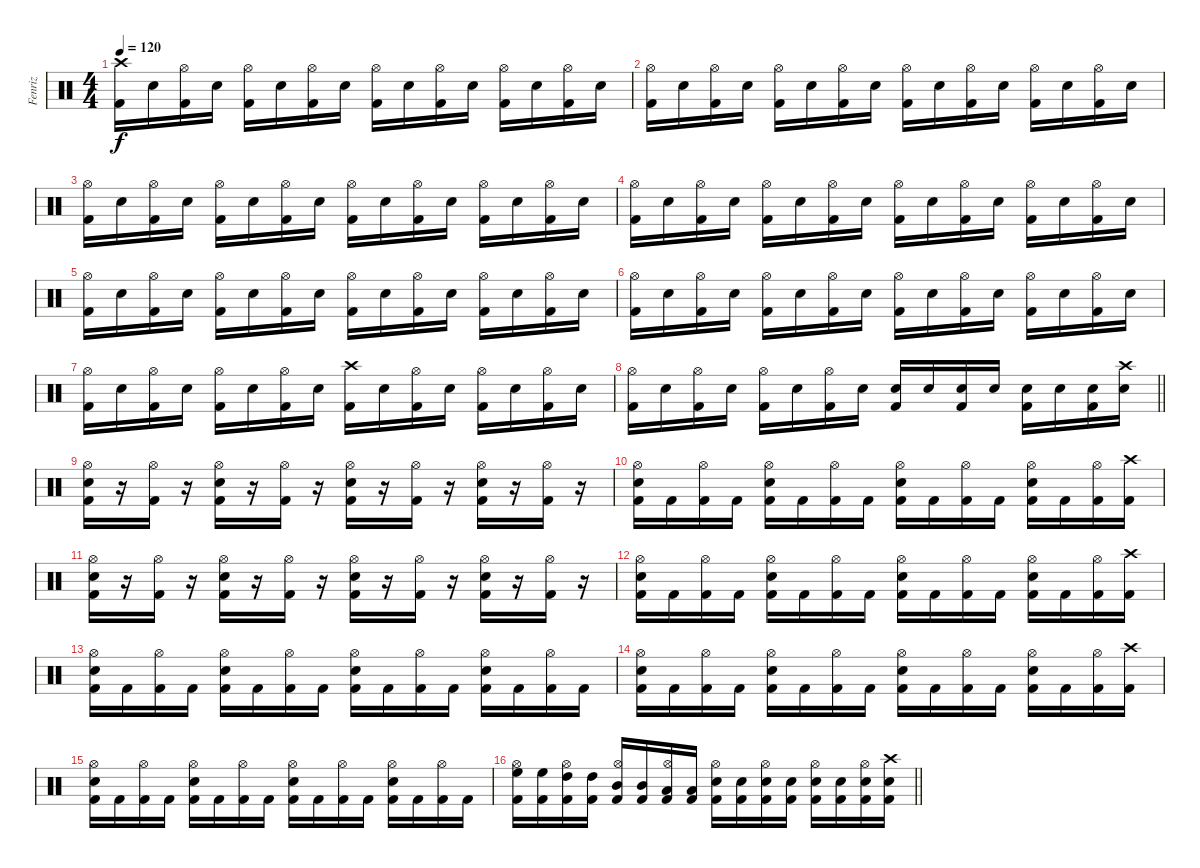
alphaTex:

\track ("Fenriz" "Fenriz") {instrument percussion}
\staff {score}
\articulation defaults
\ts (4 4)
\tempo 120
\clef neutral
\ks c
("Kick (hit) 2" "Crash high (hit)").16{dy f} "Electric Snare (hit)".16 ("Kick (hit) 2" "Hi-Hat (open)").16 "Electric Snare (hit)".16 ("Kick (hit) 2" "Hi-Hat (open)").16 "Electric Snare (hit)".16 ("Kick (hit) 2" "Hi-Hat (open)").16 "Electric Snare (hit)".16 ("Kick (hit) 2" "Hi-Hat (open)").16 "Electric Snare (hit)".16 ("Kick (hit) 2" "Hi-Hat (open)").16 "Electric Snare (hit)".16 ("Kick (hit) 2" "Hi-Hat (open)").16 "Electric Snare (hit)".16 ("Kick (hit) 2" "Hi-Hat (open)").16 "Electric Snare (hit)".16 |
("Kick (hit) 2" "Hi-Hat (open)").16 "Electric Snare (hit)".16 ("Kick (hit) 2" "Hi-Hat (open)").16 "Electric Snare (hit)".16 ("Kick (hit) 2" "Hi-Hat (open)").16 "Electric Snare (hit)".16 ("Kick (hit) 2" "Hi-Hat (open)").16 "Electric Snare (hit)".16 ("Kick (hit) 2" "Hi-Hat (open)").16 "Electric Snare (hit)".16 ("Kick (hit) 2" "Hi-Hat (open)").16 "Electric Snare (hit)".16 ("Kick (hit) 2" "Hi-Hat (open)").16 "Electric Snare (hit)".16 ("Kick (hit) 2" "Hi-Hat (open)").16 "Electric Snare (hit)".16 |
("Kick (hit) 2" "Hi-Hat (open)").16 "Electric Snare (hit)".16 ("Kick (hit) 2" "Hi-Hat (open)").16 "Electric Snare (hit)".16 ("Kick (hit) 2" "Hi-Hat (open)").16 "Electric Snare (hit)".16 ("Kick (hit) 2" "Hi-Hat (open)").16 "Electric Snare (hit)".16 ("Kick (hit) 2" "Hi-Hat (open)").16 "Electric Snare (hit)".16 ("Kick (hit) 2" "Hi-Hat (open)").16 "Electric Snare (hit)".16 ("Kick (hit) 2" "Hi-Hat (open)").16 "Electric Snare (hit)".16 ("Kick (hit) 2" "Hi-Hat (open)").16 "Electric Snare (hit)".16 |
("Kick (hit) 2" "Hi-Hat (open)").16 "Electric Snare (hit)".16 ("Kick (hit) 2" "Hi-Hat (open)").16 "Electric Snare (hit)".16 ("Kick (hit) 2" "Hi-Hat (open)").16 "Electric Snare (hit)".16 ("Kick (hit) 2" "Hi-Hat (open)").16 "Electric Snare (hit)".16 ("Kick (hit) 2" "Hi-Hat (open)").16 "Electric Snare (hit)".16 ("Kick (hit) 2" "Hi-Hat (open)").16 "Electric Snare (hit)".16 ("Kick (hit) 2" "Hi-Hat (open)").16 "Electric Snare (hit)".16 ("Kick (hit) 2" "Hi-Hat (open)").16 "Electric Snare (hit)".16 |
("Kick (hit) 2" "Hi-Hat (open)").16 "Electric Snare (hit)".16 ("Kick (hit) 2" "Hi-Hat (open)").16 "Electric Snare (hit)".16 ("Kick (hit) 2" "Hi-Hat (open)").16 "Electric Snare (hit)".16 ("Kick (hit) 2" "Hi-Hat (open)").16 "Electric Snare (hit)".16 ("Kick (hit) 2" "Hi-Hat (open)").16 "Electric Snare (hit)".16 ("Kick (hit) 2" "Hi-Hat (open)").16 "Electric Snare (hit)".16 ("Kick (hit) 2" "Hi-Hat (open)").16 "Electric Snare (hit)".16 ("Kick (hit) 2" "Hi-Hat (open)").16 "Electric Snare (hit)".16 |
("Kick (hit) 2" "Hi-Hat (open)").16 "Electric Snare (hit)".16 ("Kick (hit) 2" "Hi-Hat (open)").16 "Electric Snare (hit)".16 ("Kick (hit) 2" "Hi-Hat (open)").16 "Electric Snare (hit)".16 ("Kick (hit) 2" "Hi-Hat (open)").16 "Electric Snare (hit)".16 ("Kick (hit) 2" "Hi-Hat (open)").16 "Electric Snare (hit)".16 ("Kick (hit) 2" "Hi-Hat (open)").16 "Electric Snare (hit)".16 ("Kick (hit) 2" "Hi-Hat (open)").16 "Electric Snare (hit)".16 ("Kick (hit) 2" "Hi-Hat (open)").16 "Electric Snare (hit)".16 |
("Kick (hit) 2" "Hi-Hat (open)").16 "Electric Snare (hit)".16 ("Kick (hit) 2" "Hi-Hat (open)").16 "Electric Snare (hit)".16 ("Kick (hit) 2" "Hi-Hat (open)").16 "Electric Snare (hit)".16 ("Kick (hit) 2" "Hi-Hat (open)").16 "Electric Snare (hit)".16 ("Kick (hit) 2" "Crash high (hit)").16 "Electric Snare (hit)".16 ("Kick (hit) 2" "Hi-Hat (open)").16 "Electric Snare (hit)".16 ("Kick (hit) 2" "Hi-Hat (open)").16 "Electric Snare (hit)".16 ("Kick (hit) 2" "Hi-Hat (open)").16 "Electric Snare (hit)".16 |
\barLineRight lightlight
("Kick (hit) 2" "Hi-Hat (open)").16 "Electric Snare (hit)".16 ("Kick (hit) 2" "Hi-Hat (open)").16 "Electric Snare (hit)".16 ("Kick (hit) 2" "Hi-Hat (open)").16 "Electric Snare (hit)".16 ("Kick (hit) 2" "Hi-Hat (open)").16 "Electric Snare (hit)".16 ("Kick (hit) 2" "Electric Snare (hit)").16 "Electric Snare (hit)".16 ("Kick (hit) 2" "Electric Snare (hit)").16 "Electric Snare (hit)".16 ("Kick (hit) 2" "Electric Snare (hit)").16 "Electric Snare (hit)".16 ("Kick (hit) 2" "Electric Snare (hit)").16 ("Electric Snare (hit)" "Crash high (hit)").16 |
("Kick (hit) 2" "Electric Snare (hit)" "Hi-Hat (open)").16 r.16 ("Kick (hit) 2" "Hi-Hat (open)").16 r.16 ("Kick (hit) 2" "Electric Snare (hit)" "Hi-Hat (open)").16 r.16 ("Kick (hit) 2" "Hi-Hat (open)").16 r.16 ("Kick (hit) 2" "Electric Snare (hit)" "Hi-Hat (open)").16 r.16 ("Kick (hit) 2" "Hi-Hat (open)").16 r.16 ("Kick (hit) 2" "Electric Snare (hit)" "Hi-Hat (open)").16 r.16 ("Kick (hit) 2" "Hi-Hat (open)").16 r.16 |
("Kick (hit) 2" "Electric Snare (hit)" "Hi-Hat (open)").16 "Kick (hit) 2".16 ("Kick (hit) 2" "Hi-Hat (open)").16 "Kick (hit) 2".16 ("Kick (hit) 2" "Electric Snare (hit)" "Hi-Hat (open)").16 "Kick (hit) 2".16 ("Kick (hit) 2" "Hi-Hat (open)").16 "Kick (hit) 2".16 ("Kick (hit) 2" "Electric Snare (hit)" "Hi-Hat (open)").16 "Kick (hit) 2".16 ("Kick (hit) 2" "Hi-Hat (open)").16 "Kick (hit) 2".16 ("Kick (hit) 2" "Electric Snare (hit)" "Hi-Hat (open)").16 "Kick (hit) 2".16 ("Kick (hit) 2" "Hi-Hat (open)").16 ("Kick (hit) 2" "Crash high (hit)").16 |
("Kick (hit) 2" "Electric Snare (hit)" "Hi-Hat (open)").16 r.16 ("Kick (hit) 2" "Hi-Hat (open)").16 r.16 ("Kick (hit) 2" "Electric Snare (hit)" "Hi-Hat (open)").16 r.16 ("Kick (hit) 2" "Hi-Hat (open)").16 r.16 ("Kick (hit) 2" "Electric Snare (hit)" "Hi-Hat (open)").16 r.16 ("Kick (hit) 2" "Hi-Hat (open)").16 r.16 ("Kick (hit) 2" "Electric Snare (hit)" "Hi-Hat (open)").16 r.16 ("Kick (hit) 2" "Hi-Hat (open)").16 r.16 |
("Kick (hit) 2" "Electric Snare (hit)" "Hi-Hat (open)").16 "Kick (hit) 2".16 ("Kick (hit) 2" "Hi-Hat (open)").16 "Kick (hit) 2".16 ("Kick (hit) 2" "Electric Snare (hit)" "Hi-Hat (open)").16 "Kick (hit) 2".16 ("Kick (hit) 2" "Hi-Hat (open)").16 "Kick (hit) 2".16 ("Kick (hit) 2" "Electric Snare (hit)" "Hi-Hat (open)").16 "Kick (hit) 2".16 ("Kick (hit) 2" "Hi-Hat (open)").16 "Kick (hit) 2".16 ("Kick (hit) 2" "Electric Snare (hit)" "Hi-Hat (open)").16 "Kick (hit) 2".16 ("Kick (hit) 2" "Hi-Hat (open)").16 ("Kick (hit) 2" "Crash high (hit)").16 |
("Kick (hit) 2" "Electric Snare (hit)" "Hi-Hat (open)").16 "Kick (hit) 2".16 ("Kick (hit) 2" "Hi-Hat (open)").16 "Kick (hit) 2".16 ("Kick (hit) 2" "Electric Snare (hit)" "Hi-Hat (open)").16 "Kick (hit) 2".16 ("Kick (hit) 2" "Hi-Hat (open)").16 "Kick (hit) 2".16 ("Kick (hit) 2" "Electric Snare (hit)" "Hi-Hat (open)").16 "Kick (hit) 2".16 ("Kick (hit) 2" "Hi-Hat (open)").16 "Kick (hit) 2".16 ("Kick (hit) 2" "Electric Snare (hit)" "Hi-Hat (open)").16 "Kick (hit) 2".16 ("Kick (hit) 2" "Hi-Hat (open)").16 "Kick (hit) 2".16 |
("Kick (hit) 2" "Electric Snare (hit)" "Hi-Hat (open)").16 "Kick (hit) 2".16 ("Kick (hit) 2" "Hi-Hat (open)").16 "Kick (hit) 2".16 ("Kick (hit) 2" "Electric Snare (hit)" "Hi-Hat (open)").16 "Kick (hit) 2".16 ("Kick (hit) 2" "Hi-Hat (open)").16 "Kick (hit) 2".16 ("Kick (hit) 2" "Electric Snare (hit)" "Hi-Hat (open)").16 "Kick (hit) 2".16 ("Kick (hit) 2" "Hi-Hat (open)").16 "Kick (hit) 2".16 ("Kick (hit) 2" "Electric Snare (hit)" "Hi-Hat (open)").16 "Kick (hit) 2".16 ("Kick (hit) 2" "Hi-Hat (open)").16 ("Kick (hit) 2" "Crash high (hit)").16 |
("Kick (hit) 2" "Electric Snare (hit)" "Hi-Hat (open)").16 "Kick (hit) 2".16 ("Kick (hit) 2" "Hi-Hat (open)").16 "Kick (hit) 2".16 ("Kick (hit) 2" "Electric Snare (hit)" "Hi-Hat (open)").16 "Kick (hit) 2".16 ("Kick (hit) 2" "Hi-Hat (open)").16 "Kick (hit) 2".16 ("Kick (hit) 2" "Electric Snare (hit)" "Hi-Hat (open)").16 "Kick (hit) 2".16 ("Kick (hit) 2" "Hi-Hat (open)").16 "Kick (hit) 2".16 ("Kick (hit) 2" "Electric Snare (hit)" "Hi-Hat (open)").16 "Kick (hit) 2".16 ("Kick (hit) 2" "Hi-Hat (open)").16 "Kick (hit) 2".16 |
\barLineRight lightlight
("Kick (hit) 2" "High Floor Tom (hit)" "Hi-Hat (open)").16 ("Kick (hit) 2" "High Floor Tom (hit)").16 ("Kick (hit) 2" "High Tom (hit)" "Hi-Hat (open)").16 ("Kick (hit) 2" "High Tom (hit)").16 ("Kick (hit) 2" "Mid Tom (hit)" "Hi-Hat (open)").16 ("Kick (hit) 2" "Mid Tom (hit)").16 ("Kick (hit) 2" "Low Tom (hit)" "Hi-Hat (open)").16 ("Kick (hit) 2" "Low Tom (hit)").16 ("Kick (hit) 2" "Electric Snare (hit)" "Hi-Hat (open)").16 ("Kick (hit) 2" "Electric Snare (hit)").16 ("Kick (hit) 2" "Electric Snare (hit)" "Hi-Hat (open)").16 ("Kick (hit) 2" "Electric Snare (hit)").16 ("Kick (hit) 2" "Electric Snare (hit)" "Hi-Hat (open)").16 ("Kick (hit) 2" "Electric Snare (hit)").16 ("Kick (hit) 2" "Electric Snare (hit)" "Hi-Hat (open)").16 ("Kick (hit) 2" "Electric Snare (hit)" "Crash high (hit)").16
